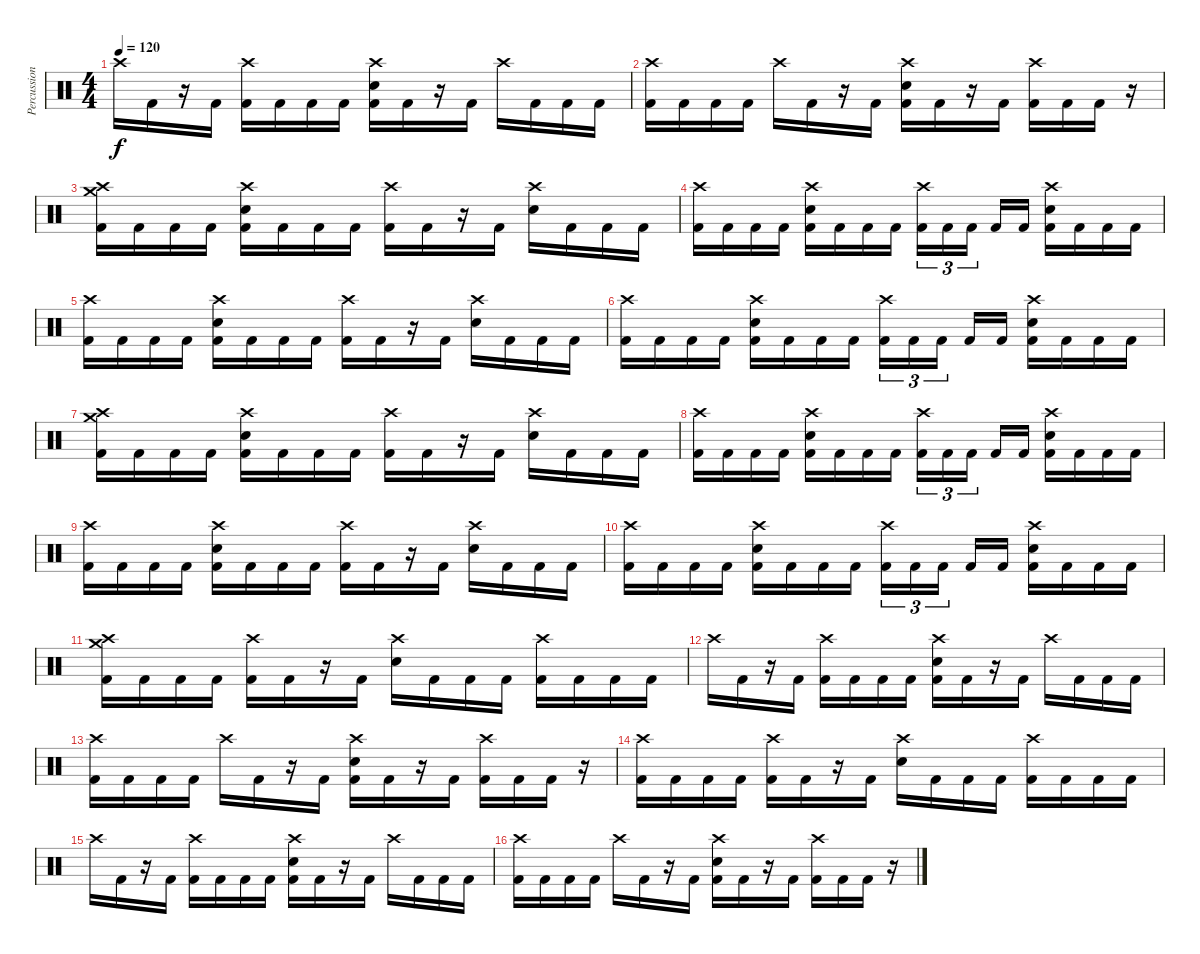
\track ("Percussion" "Percussion") {instrument percussion}
\staff {score}
\articulation defaults
\ts (4 4)
\tempo 120
\clef neutral
\ks c "Crash high (hit)".16{dy f} "Kick (hit) 2".16
r.16 "Kick (hit) 2".16 ("Crash high (hit)" "Kick (hit) 2").16 "Kick (hit) 2".16 "Kick (hit) 2".16 "Kick (hit) 2".16 ("Crash high (hit)" "Electric Snare (hit)" "Kick (hit) 2").16 "Kick (hit) 2".16 r.16 "Kick (hit) 2".16 "Crash high (hit)".16 "Kick (hit) 2".16 "Kick (hit) 2".16 "Kick (hit) 2".16 |
("Crash high (hit)" "Kick (hit) 2").16 "Kick (hit) 2".16 "Kick (hit) 2".16 "Kick (hit) 2".16 "Crash high (hit)".16 "Kick (hit) 2".16 r.16 "Kick (hit) 2".16 ("Crash high (hit)" "Electric Snare (hit)" "Kick (hit) 2").16 "Kick (hit) 2".16 r.16 "Kick (hit) 2".16 ("Crash high (hit)" "Kick (hit) 2").16 "Kick (hit) 2".16 "Kick (hit) 2".16 r.16 |
("Crash high (hit)" "Crash medium (hit)" "Kick (hit) 2").16 "Kick (hit) 2".16 "Kick (hit) 2".16 "Kick (hit) 2".16 ("Crash high (hit)" "Electric Snare (hit)" "Kick (hit) 2").16 "Kick (hit) 2".16 "Kick (hit) 2".16 "Kick (hit) 2".16 ("Crash high (hit)" "Kick (hit) 2").16 "Kick (hit) 2".16 r.16 "Kick (hit) 2".16 ("Crash high (hit)" "Electric Snare (hit)").16 "Kick (hit) 2".16 "Kick (hit) 2".16 "Kick (hit) 2".16 |
("Crash high (hit)" "Kick (hit) 2").16 "Kick (hit) 2".16 "Kick (hit) 2".16 "Kick (hit) 2".16 ("Crash high (hit)" "Electric Snare (hit)" "Kick (hit) 2").16 "Kick (hit) 2".16 "Kick (hit) 2".16 "Kick (hit) 2".16 ("Crash high (hit)" "Kick (hit) 2").16{tu (3 2)} "Kick (hit) 2".16{tu (3 2)} "Kick (hit) 2".16{tu (3 2) beam splitsecondary} "Kick (hit) 2".16 "Kick (hit) 2".16 ("Crash high (hit)" "Electric Snare (hit)" "Kick (hit) 2").16 "Kick (hit) 2".16 "Kick (hit) 2".16 "Kick (hit) 2".16 |
("Crash high (hit)" "Kick (hit) 2").16 "Kick (hit) 2".16 "Kick (hit) 2".16 "Kick (hit) 2".16 ("Crash high (hit)" "Electric Snare (hit)" "Kick (hit) 2").16 "Kick (hit) 2".16 "Kick (hit) 2".16 "Kick (hit) 2".16 ("Crash high (hit)" "Kick (hit) 2").16 "Kick (hit) 2".16 r.16 "Kick (hit) 2".16 ("Crash high (hit)" "Electric Snare (hit)").16 "Kick (hit) 2".16 "Kick (hit) 2".16 "Kick (hit) 2".16 |
("Crash high (hit)" "Kick (hit) 2").16 "Kick (hit) 2".16 "Kick (hit) 2".16 "Kick (hit) 2".16 ("Crash high (hit)" "Electric Snare (hit)" "Kick (hit) 2").16 "Kick (hit) 2".16 "Kick (hit) 2".16 "Kick (hit) 2".16 ("Crash high (hit)" "Kick (hit) 2").16{tu (3 2)} "Kick (hit) 2".16{tu (3 2)} "Kick (hit) 2".16{tu (3 2) beam splitsecondary} "Kick (hit) 2".16 "Kick (hit) 2".16 ("Crash high (hit)" "Electric Snare (hit)" "Kick (hit) 2").16 "Kick (hit) 2".16 "Kick (hit) 2".16 "Kick (hit) 2".16 |
("Crash high (hit)" "Crash medium (hit)" "Kick (hit) 2").16 "Kick (hit) 2".16 "Kick (hit) 2".16 "Kick (hit) 2".16 ("Crash high (hit)" "Electric Snare (hit)" "Kick (hit) 2").16 "Kick (hit) 2".16 "Kick (hit) 2".16 "Kick (hit) 2".16 ("Crash high (hit)" "Kick (hit) 2").16 "Kick (hit) 2".16 r.16 "Kick (hit) 2".16 ("Crash high (hit)" "Electric Snare (hit)").16 "Kick (hit) 2".16 "Kick (hit) 2".16 "Kick (hit) 2".16 |
("Crash high (hit)" "Kick (hit) 2").16 "Kick (hit) 2".16 "Kick (hit) 2".16 "Kick (hit) 2".16 ("Crash high (hit)" "Electric Snare (hit)" "Kick (hit) 2").16 "Kick (hit) 2".16 "Kick (hit) 2".16 "Kick (hit) 2".16 ("Crash high (hit)" "Kick (hit) 2").16{tu (3 2)} "Kick (hit) 2".16{tu (3 2)} "Kick (hit) 2".16{tu (3 2) beam splitsecondary} "Kick (hit) 2".16 "Kick (hit) 2".16 ("Crash high (hit)" "Electric Snare (hit)" "Kick (hit) 2").16 "Kick (hit) 2".16 "Kick (hit) 2".16 "Kick (hit) 2".16 |
("Crash high (hit)" "Kick (hit) 2").16 "Kick (hit) 2".16 "Kick (hit) 2".16 "Kick (hit) 2".16 ("Crash high (hit)" "Electric Snare (hit)" "Kick (hit) 2").16 "Kick (hit) 2".16 "Kick (hit) 2".16 "Kick (hit) 2".16 ("Crash high (hit)" "Kick (hit) 2").16 "Kick (hit) 2".16 r.16 "Kick (hit) 2".16 ("Crash high (hit)" "Electric Snare (hit)").16 "Kick (hit) 2".16 "Kick (hit) 2".16 "Kick (hit) 2".16 |
("Crash high (hit)" "Kick (hit) 2").16 "Kick (hit) 2".16 "Kick (hit) 2".16 "Kick (hit) 2".16 ("Crash high (hit)" "Electric Snare (hit)" "Kick (hit) 2").16 "Kick (hit) 2".16 "Kick (hit) 2".16 "Kick (hit) 2".16 ("Crash high (hit)" "Kick (hit) 2").16{tu (3 2)} "Kick (hit) 2".16{tu (3 2)} "Kick (hit) 2".16{tu (3 2) beam splitsecondary} "Kick (hit) 2".16 "Kick (hit) 2".16 ("Crash high (hit)" "Electric Snare (hit)" "Kick (hit) 2").16 "Kick (hit) 2".16 "Kick (hit) 2".16 "Kick (hit) 2".16 |
("Crash high (hit)" "Crash medium (hit)" "Kick (hit) 2").16 "Kick (hit) 2".16 "Kick (hit) 2".16 "Kick (hit) 2".16 ("Crash high (hit)" "Kick (hit) 2").16 "Kick (hit) 2".16 r.16 "Kick (hit) 2".16 ("Crash high (hit)" "Electric Snare (hit)").16 "Kick (hit) 2".16 "Kick (hit) 2".16 "Kick (hit) 2".16 ("Crash high (hit)" "Kick (hit) 2").16 "Kick (hit) 2".16 "Kick (hit) 2".16 "Kick (hit) 2".16 |
"Crash high (hit)".16 "Kick (hit) 2".16 r.16 "Kick (hit) 2".16 ("Crash high (hit)" "Kick (hit) 2").16 "Kick (hit) 2".16 "Kick (hit) 2".16 "Kick (hit) 2".16 ("Crash high (hit)" "Electric Snare (hit)" "Kick (hit) 2").16 "Kick (hit) 2".16 r.16 "Kick (hit) 2".16 "Crash high (hit)".16 "Kick (hit) 2".16 "Kick (hit) 2".16 "Kick (hit) 2".16 |
("Crash high (hit)" "Kick (hit) 2").16 "Kick (hit) 2".16 "Kick (hit) 2".16 "Kick (hit) 2".16 "Crash high (hit)".16 "Kick (hit) 2".16 r.16 "Kick (hit) 2".16 ("Crash high (hit)" "Electric Snare (hit)" "Kick (hit) 2").16 "Kick (hit) 2".16 r.16 "Kick (hit) 2".16 ("Crash high (hit)" "Kick (hit) 2").16 "Kick (hit) 2".16 "Kick (hit) 2".16 r.16 |
("Crash high (hit)" "Kick (hit) 2").16 "Kick (hit) 2".16 "Kick (hit) 2".16 "Kick (hit) 2".16 ("Crash high (hit)" "Kick (hit) 2").16 "Kick (hit) 2".16 r.16 "Kick (hit) 2".16 ("Crash high (hit)" "Electric Snare (hit)").16 "Kick (hit) 2".16 "Kick (hit) 2".16 "Kick (hit) 2".16 ("Crash high (hit)" "Kick (hit) 2").16 "Kick (hit) 2".16 "Kick (hit) 2".16 "Kick (hit) 2".16 |
"Crash high (hit)".16 "Kick (hit) 2".16 r.16 "Kick (hit) 2".16 ("Crash high (hit)" "Kick (hit) 2").16 "Kick (hit) 2".16 "Kick (hit) 2".16 "Kick (hit) 2".16 ("Crash high (hit)" "Electric Snare (hit)" "Kick (hit) 2").16 "Kick (hit) 2".16 r.16 "Kick (hit) 2".16 "Crash high (hit)".16 "Kick (hit) 2".16 "Kick (hit) 2".16 "Kick (hit) 2".16 |
("Crash high (hit)" "Kick (hit) 2").16 "Kick (hit) 2".16 "Kick (hit) 2".16 "Kick (hit) 2".16 "Crash high (hit)".16 "Kick (hit) 2".16 r.16 "Kick (hit) 2".16 ("Crash high (hit)" "Electric Snare (hit)" "Kick (hit) 2").16 "Kick (hit) 2".16 r.16 "Kick (hit) 2".16 ("Crash high (hit)" "Kick (hit) 2").16 "Kick (hit) 2".16 "Kick (hit) 2".16 r.16
